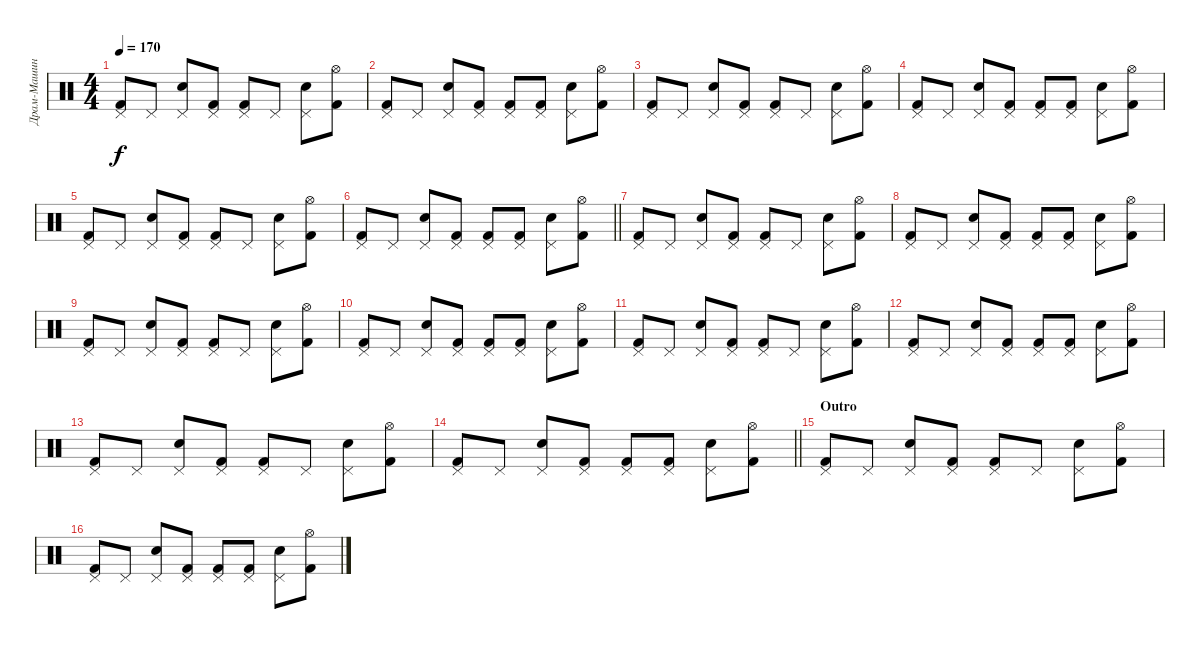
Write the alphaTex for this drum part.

\track ("Драм-Машина" "Драм-Машин") {instrument percussion}
\staff {score}
\articulation defaults
\ts (4 4)
\tempo 170
\clef neutral
\ks c
("Pedal Hi-Hat (hit)" "Kick (hit) 2").8{dy f} "Pedal Hi-Hat (hit)".8 ("Pedal Hi-Hat (hit)" "Electric Snare (hit)").8 ("Pedal Hi-Hat (hit)" "Kick (hit) 2").8 ("Pedal Hi-Hat (hit)" "Kick (hit) 2").8 "Pedal Hi-Hat (hit)".8 ("Pedal Hi-Hat (hit)" "Electric Snare (hit)").8 ("Hi-Hat (open)" "Kick (hit) 2").8 |
("Pedal Hi-Hat (hit)" "Kick (hit) 2").8 "Pedal Hi-Hat (hit)".8 ("Pedal Hi-Hat (hit)" "Electric Snare (hit)").8 ("Pedal Hi-Hat (hit)" "Kick (hit) 2").8 ("Pedal Hi-Hat (hit)" "Kick (hit) 2").8 ("Pedal Hi-Hat (hit)" "Kick (hit) 2").8 ("Pedal Hi-Hat (hit)" "Electric Snare (hit)").8 ("Hi-Hat (open)" "Kick (hit) 2").8 |
("Pedal Hi-Hat (hit)" "Kick (hit) 2").8 "Pedal Hi-Hat (hit)".8 ("Pedal Hi-Hat (hit)" "Electric Snare (hit)").8 ("Pedal Hi-Hat (hit)" "Kick (hit) 2").8 ("Pedal Hi-Hat (hit)" "Kick (hit) 2").8 "Pedal Hi-Hat (hit)".8 ("Pedal Hi-Hat (hit)" "Electric Snare (hit)").8 ("Hi-Hat (open)" "Kick (hit) 2").8 |
("Pedal Hi-Hat (hit)" "Kick (hit) 2").8 "Pedal Hi-Hat (hit)".8 ("Pedal Hi-Hat (hit)" "Electric Snare (hit)").8 ("Pedal Hi-Hat (hit)" "Kick (hit) 2").8 ("Pedal Hi-Hat (hit)" "Kick (hit) 2").8 ("Pedal Hi-Hat (hit)" "Kick (hit) 2").8 ("Pedal Hi-Hat (hit)" "Electric Snare (hit)").8 ("Hi-Hat (open)" "Kick (hit) 2").8 |
("Pedal Hi-Hat (hit)" "Kick (hit) 2").8 "Pedal Hi-Hat (hit)".8 ("Pedal Hi-Hat (hit)" "Electric Snare (hit)").8 ("Pedal Hi-Hat (hit)" "Kick (hit) 2").8 ("Pedal Hi-Hat (hit)" "Kick (hit) 2").8 "Pedal Hi-Hat (hit)".8 ("Pedal Hi-Hat (hit)" "Electric Snare (hit)").8 ("Hi-Hat (open)" "Kick (hit) 2").8 |
\barLineRight lightlight
("Pedal Hi-Hat (hit)" "Kick (hit) 2").8 "Pedal Hi-Hat (hit)".8 ("Pedal Hi-Hat (hit)" "Electric Snare (hit)").8 ("Pedal Hi-Hat (hit)" "Kick (hit) 2").8 ("Pedal Hi-Hat (hit)" "Kick (hit) 2").8 ("Pedal Hi-Hat (hit)" "Kick (hit) 2").8 ("Pedal Hi-Hat (hit)" "Electric Snare (hit)").8 ("Hi-Hat (open)" "Kick (hit) 2").8 |
("Pedal Hi-Hat (hit)" "Kick (hit) 2").8 "Pedal Hi-Hat (hit)".8 ("Pedal Hi-Hat (hit)" "Electric Snare (hit)").8 ("Pedal Hi-Hat (hit)" "Kick (hit) 2").8 ("Pedal Hi-Hat (hit)" "Kick (hit) 2").8 "Pedal Hi-Hat (hit)".8 ("Pedal Hi-Hat (hit)" "Electric Snare (hit)").8 ("Hi-Hat (open)" "Kick (hit) 2").8 |
("Pedal Hi-Hat (hit)" "Kick (hit) 2").8 "Pedal Hi-Hat (hit)".8 ("Pedal Hi-Hat (hit)" "Electric Snare (hit)").8 ("Pedal Hi-Hat (hit)" "Kick (hit) 2").8 ("Pedal Hi-Hat (hit)" "Kick (hit) 2").8 ("Pedal Hi-Hat (hit)" "Kick (hit) 2").8 ("Pedal Hi-Hat (hit)" "Electric Snare (hit)").8 ("Hi-Hat (open)" "Kick (hit) 2").8 |
("Pedal Hi-Hat (hit)" "Kick (hit) 2").8 "Pedal Hi-Hat (hit)".8 ("Pedal Hi-Hat (hit)" "Electric Snare (hit)").8 ("Pedal Hi-Hat (hit)" "Kick (hit) 2").8 ("Pedal Hi-Hat (hit)" "Kick (hit) 2").8 "Pedal Hi-Hat (hit)".8 ("Pedal Hi-Hat (hit)" "Electric Snare (hit)").8 ("Hi-Hat (open)" "Kick (hit) 2").8 |
("Pedal Hi-Hat (hit)" "Kick (hit) 2").8 "Pedal Hi-Hat (hit)".8 ("Pedal Hi-Hat (hit)" "Electric Snare (hit)").8 ("Pedal Hi-Hat (hit)" "Kick (hit) 2").8 ("Pedal Hi-Hat (hit)" "Kick (hit) 2").8 ("Pedal Hi-Hat (hit)" "Kick (hit) 2").8 ("Pedal Hi-Hat (hit)" "Electric Snare (hit)").8 ("Hi-Hat (open)" "Kick (hit) 2").8 |
("Pedal Hi-Hat (hit)" "Kick (hit) 2").8 "Pedal Hi-Hat (hit)".8 ("Pedal Hi-Hat (hit)" "Electric Snare (hit)").8 ("Pedal Hi-Hat (hit)" "Kick (hit) 2").8 ("Pedal Hi-Hat (hit)" "Kick (hit) 2").8 "Pedal Hi-Hat (hit)".8 ("Pedal Hi-Hat (hit)" "Electric Snare (hit)").8 ("Hi-Hat (open)" "Kick (hit) 2").8 |
("Pedal Hi-Hat (hit)" "Kick (hit) 2").8 "Pedal Hi-Hat (hit)".8 ("Pedal Hi-Hat (hit)" "Electric Snare (hit)").8 ("Pedal Hi-Hat (hit)" "Kick (hit) 2").8 ("Pedal Hi-Hat (hit)" "Kick (hit) 2").8 ("Pedal Hi-Hat (hit)" "Kick (hit) 2").8 ("Pedal Hi-Hat (hit)" "Electric Snare (hit)").8 ("Hi-Hat (open)" "Kick (hit) 2").8 |
("Pedal Hi-Hat (hit)" "Kick (hit) 2").8 "Pedal Hi-Hat (hit)".8 ("Pedal Hi-Hat (hit)" "Electric Snare (hit)").8 ("Pedal Hi-Hat (hit)" "Kick (hit) 2").8 ("Pedal Hi-Hat (hit)" "Kick (hit) 2").8 "Pedal Hi-Hat (hit)".8 ("Pedal Hi-Hat (hit)" "Electric Snare (hit)").8 ("Hi-Hat (open)" "Kick (hit) 2").8 |
\barLineRight lightlight
("Pedal Hi-Hat (hit)" "Kick (hit) 2").8 "Pedal Hi-Hat (hit)".8 ("Pedal Hi-Hat (hit)" "Electric Snare (hit)").8 ("Pedal Hi-Hat (hit)" "Kick (hit) 2").8 ("Pedal Hi-Hat (hit)" "Kick (hit) 2").8 ("Pedal Hi-Hat (hit)" "Kick (hit) 2").8 ("Pedal Hi-Hat (hit)" "Electric Snare (hit)").8 ("Hi-Hat (open)" "Kick (hit) 2").8 |
\section ("" "Outro")
("Pedal Hi-Hat (hit)" "Kick (hit) 2").8 "Pedal Hi-Hat (hit)".8 ("Pedal Hi-Hat (hit)" "Electric Snare (hit)").8 ("Pedal Hi-Hat (hit)" "Kick (hit) 2").8 ("Pedal Hi-Hat (hit)" "Kick (hit) 2").8 "Pedal Hi-Hat (hit)".8 ("Pedal Hi-Hat (hit)" "Electric Snare (hit)").8 ("Hi-Hat (open)" "Kick (hit) 2").8 |
("Pedal Hi-Hat (hit)" "Kick (hit) 2").8 "Pedal Hi-Hat (hit)".8 ("Pedal Hi-Hat (hit)" "Electric Snare (hit)").8 ("Pedal Hi-Hat (hit)" "Kick (hit) 2").8 ("Pedal Hi-Hat (hit)" "Kick (hit) 2").8 ("Pedal Hi-Hat (hit)" "Kick (hit) 2").8 ("Pedal Hi-Hat (hit)" "Electric Snare (hit)").8 ("Hi-Hat (open)" "Kick (hit) 2").8
